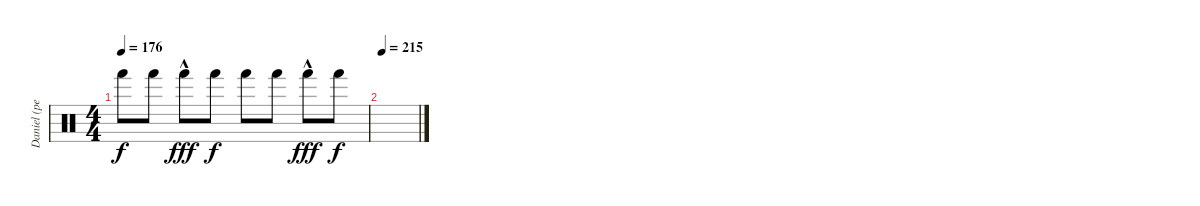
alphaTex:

\track ("Daniel (percussion)" "Daniel (pe") {instrument percussion}
\staff {score}
\articulation defaults
\ts (4 4)
\tempo 176
\clef neutral
\ks c "Hand (hit)".8{dy f} "Hand (hit)".8 "Hand (hit)"{hac}.8{dy fff} "Hand (hit)".8{dy f} "Hand (hit)".8 "Hand (hit)".8 "Hand (hit)"{hac}.8{dy fff} "Hand (hit)".8{dy f}
|
\tempo 215
